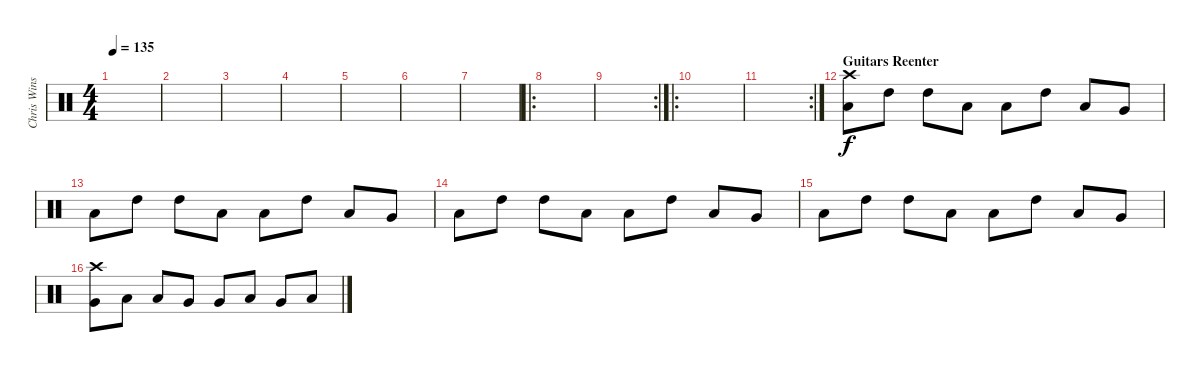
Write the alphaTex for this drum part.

\track ("Chris Winship (Drums)" "Chris Wins") {instrument percussion}
\staff {score}
\articulation defaults
\ts (4 4)
\tempo 135
\clef neutral
\ks c
|
|
|
|
|
|
|
\ro
|
\rc 2
|
\ro
|
\rc 2
|
\section ("" "Guitars Reenter")
("Crash high (hit)" "Low Tom (hit)").8 "High Tom (hit)".8 "High Tom (hit)".8 "Low Tom (hit)".8 "Low Tom (hit)".8 "High Tom (hit)".8 "Low Tom (hit)".8 "Very Low Tom (hit)".8 |
"Low Tom (hit)".8 "High Tom (hit)".8 "High Tom (hit)".8 "Low Tom (hit)".8 "Low Tom (hit)".8 "High Tom (hit)".8 "Low Tom (hit)".8 "Very Low Tom (hit)".8 |
"Low Tom (hit)".8 "High Tom (hit)".8 "High Tom (hit)".8 "Low Tom (hit)".8 "Low Tom (hit)".8 "High Tom (hit)".8 "Low Tom (hit)".8 "Very Low Tom (hit)".8 |
"Low Tom (hit)".8 "High Tom (hit)".8 "High Tom (hit)".8 "Low Tom (hit)".8 "Low Tom (hit)".8 "High Tom (hit)".8 "Low Tom (hit)".8 "Very Low Tom (hit)".8 |
("Crash high (hit)" "Very Low Tom (hit)").8 "Low Tom (hit)".8 "Low Tom (hit)".8 "Very Low Tom (hit)".8 "Very Low Tom (hit)".8 "Low Tom (hit)".8 "Very Low Tom (hit)".8 "Low Floor Tom (hit)".8
